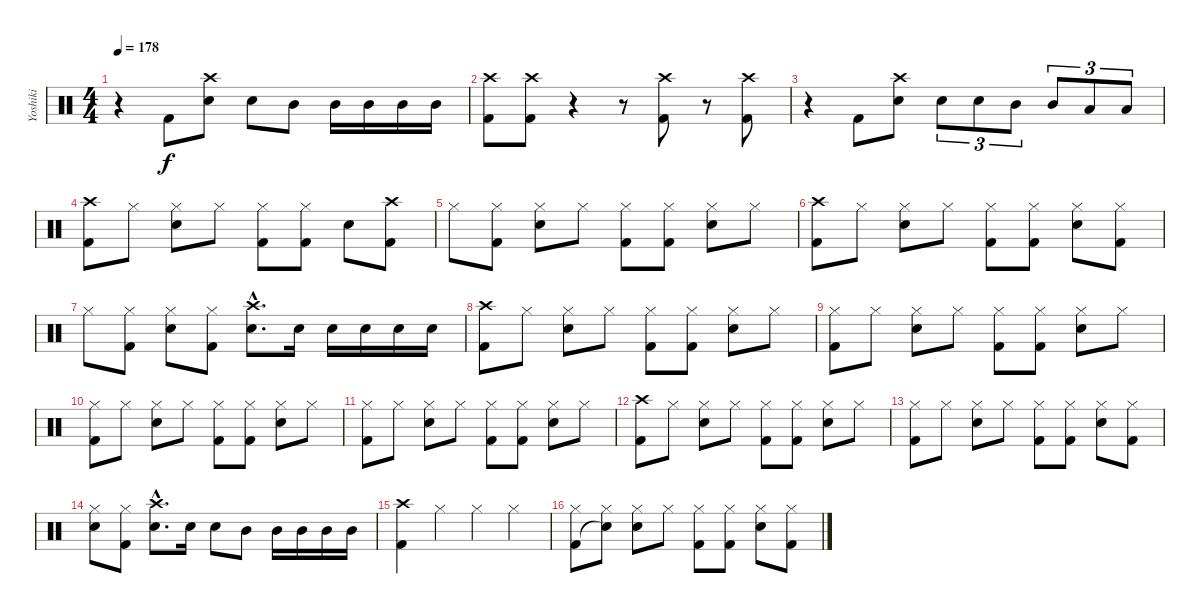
\track ("Yoshiki" "Yoshiki") {instrument percussion}
\staff {score}
\articulation defaults
\ts (4 4)
\tempo 178
\clef neutral
\ks c
r.4{dy f} "Kick (hit) 2".8 ("Crash high (hit)" "Snare (hit) 2").8 "Snare (hit) 2".8 "Mid Tom (hit)".8 "Mid Tom (hit)".16 "Mid Tom (hit)".16 "Mid Tom (hit)".16 "Mid Tom (hit)".16 |
("Crash high (hit)" "Kick (hit) 2").8 ("Crash high (hit)" "Kick (hit) 2").8 r.4 r.8 ("Crash high (hit)" "Kick (hit) 2").8 r.8 ("Crash high (hit)" "Kick (hit) 2").8 |
r.4 "Kick (hit) 2".8 ("Crash high (hit)" "Snare (hit) 2").8 "Snare (hit) 2".8{tu (3 2)} "Snare (hit) 2".8{tu (3 2)} "Mid Tom (hit)".8{tu (3 2)} "Mid Tom (hit)".8{tu (3 2)} "Low Tom (hit)".8{tu (3 2)} "Low Tom (hit)".8{tu (3 2)} |
("Crash high (hit)" "Kick (hit) 2").8 "Hi-Hat (closed)".8 ("Hi-Hat (closed)" "Snare (hit) 2").8 "Hi-Hat (closed)".8 ("Hi-Hat (closed)" "Kick (hit) 2").8 ("Hi-Hat (closed)" "Kick (hit) 2").8 "Snare (hit) 2".8 ("Crash high (hit)" "Kick (hit) 2").8 |
"Hi-Hat (closed)".8 ("Hi-Hat (closed)" "Kick (hit) 2").8 ("Hi-Hat (closed)" "Snare (hit) 2").8 "Hi-Hat (closed)".8 ("Hi-Hat (closed)" "Kick (hit) 2").8 ("Hi-Hat (closed)" "Kick (hit) 2").8 ("Hi-Hat (closed)" "Snare (hit) 2").8 "Hi-Hat (closed)".8 |
("Crash high (hit)" "Kick (hit) 2").8 "Hi-Hat (closed)".8 ("Hi-Hat (closed)" "Snare (hit) 2").8 "Hi-Hat (closed)".8 ("Hi-Hat (closed)" "Kick (hit) 2").8 ("Hi-Hat (closed)" "Kick (hit) 2").8 ("Hi-Hat (closed)" "Snare (hit) 2").8 ("Hi-Hat (closed)" "Kick (hit) 2").8 |
"Hi-Hat (closed)".8 ("Hi-Hat (closed)" "Kick (hit) 2").8 ("Hi-Hat (closed)" "Snare (hit) 2").8 ("Hi-Hat (closed)" "Kick (hit) 2").8 ("Crash high (hit)"{hac} "Snare (hit) 2"{hac}).8{d} "Snare (hit) 2".16 "Snare (hit) 2".16 "Snare (hit) 2".16 "Snare (hit) 2".16 "Snare (hit) 2".16 |
("Crash high (hit)" "Kick (hit) 2").8 "Hi-Hat (closed)".8 ("Hi-Hat (closed)" "Snare (hit) 2").8 "Hi-Hat (closed)".8 ("Hi-Hat (closed)" "Kick (hit) 2").8 ("Hi-Hat (closed)" "Kick (hit) 2").8 ("Hi-Hat (closed)" "Snare (hit) 2").8 "Hi-Hat (closed)".8 |
("Hi-Hat (closed)" "Kick (hit) 2").8 "Hi-Hat (closed)".8 ("Hi-Hat (closed)" "Snare (hit) 2").8 "Hi-Hat (closed)".8 ("Hi-Hat (closed)" "Kick (hit) 2").8 ("Hi-Hat (closed)" "Kick (hit) 2").8 ("Hi-Hat (closed)" "Snare (hit) 2").8 "Hi-Hat (closed)".8 |
("Hi-Hat (closed)" "Kick (hit) 2").8 "Hi-Hat (closed)".8 ("Hi-Hat (closed)" "Snare (hit) 2").8 "Hi-Hat (closed)".8 ("Hi-Hat (closed)" "Kick (hit) 2").8 ("Hi-Hat (closed)" "Kick (hit) 2").8 ("Hi-Hat (closed)" "Snare (hit) 2").8 "Hi-Hat (closed)".8 |
("Hi-Hat (closed)" "Kick (hit) 2").8 "Hi-Hat (closed)".8 ("Hi-Hat (closed)" "Snare (hit) 2").8 "Hi-Hat (closed)".8 ("Hi-Hat (closed)" "Kick (hit) 2").8 ("Hi-Hat (closed)" "Kick (hit) 2").8 ("Hi-Hat (closed)" "Snare (hit) 2").8 "Hi-Hat (closed)".8 |
("Crash high (hit)" "Kick (hit) 2").8 "Hi-Hat (closed)".8 ("Hi-Hat (closed)" "Snare (hit) 2").8 "Hi-Hat (closed)".8 ("Hi-Hat (closed)" "Kick (hit) 2").8 ("Hi-Hat (closed)" "Kick (hit) 2").8 ("Hi-Hat (closed)" "Snare (hit) 2").8 "Hi-Hat (closed)".8 |
("Hi-Hat (closed)" "Kick (hit) 2").8 "Hi-Hat (closed)".8 ("Hi-Hat (closed)" "Snare (hit) 2").8 "Hi-Hat (closed)".8 ("Hi-Hat (closed)" "Kick (hit) 2").8 ("Hi-Hat (closed)" "Kick (hit) 2").8 ("Hi-Hat (closed)" "Snare (hit) 2").8 ("Hi-Hat (closed)" "Kick (hit) 2").8 |
("Hi-Hat (closed)" "Snare (hit) 2").8 ("Hi-Hat (closed)" "Kick (hit) 2").8 ("Crash high (hit)"{hac} "Snare (hit) 2"{hac}).8{d} "Snare (hit) 2".16 "Snare (hit) 2".8 "Mid Tom (hit)".8 "Mid Tom (hit)".16 "Mid Tom (hit)".16 "Mid Tom (hit)".16 "Mid Tom (hit)".16 |
("Crash high (hit)" "Kick (hit) 2").4 "Hi-Hat (closed)".4 "Hi-Hat (closed)".4 "Hi-Hat (closed)".4 |
("Hi-Hat (closed)" "Kick (hit) 2").8 ("Hi-Hat (closed)" "Snare (hit)"{t}).8 ("Hi-Hat (closed)" "Snare (hit) 2").8 "Hi-Hat (closed)".8 ("Hi-Hat (closed)" "Kick (hit) 2").8 ("Hi-Hat (closed)" "Kick (hit) 2").8 ("Hi-Hat (closed)" "Snare (hit) 2").8 ("Hi-Hat (closed)" "Kick (hit) 2").8
